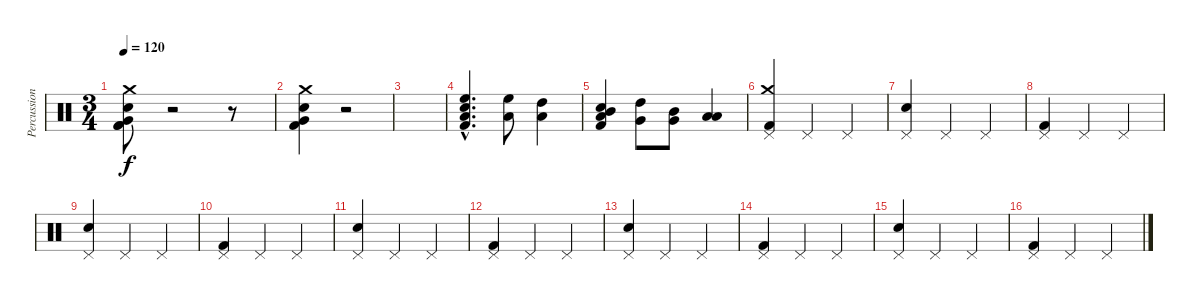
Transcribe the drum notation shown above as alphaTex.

\track ("Percussion" "Percussion") {instrument percussion}
\staff {score}
\articulation defaults
\ts (3 4)
\tempo 120
\clef neutral
\ks c
("Kick (hit) 2" "Snare (hit) 2" "Very Low Tom (hit)" "Crash medium (hit)" "Kick (hit) 2").8{dy f} r.2 r.8 |
("Kick (hit) 2" "Snare (hit) 2" "Very Low Tom (hit)" "Crash medium (hit)").4 r.2 |
|
("Low Tom (hit)"{hac} "High Floor Tom (hit)"{hac} "Kick (hit) 2"{hac} "Electric Snare (hit)"{hac}).4{d} ("Low Tom (hit)" "High Floor Tom (hit)").8 ("Low Tom (hit)" "High Tom (hit)").4 |
("Low Tom (hit)" "Mid Tom (hit)" "Kick (hit) 2" "Electric Snare (hit)").4 ("Very Low Tom (hit)" "High Tom (hit)").8 ("Very Low Tom (hit)" "Mid Tom (hit)").8 ("Low Floor Tom (hit)" "Low Tom (hit)").4 |
("Kick (hit) 2" "Pedal Hi-Hat (hit)" "Crash medium (hit)").4 "Pedal Hi-Hat (hit)".4 "Pedal Hi-Hat (hit)".4 |
("Pedal Hi-Hat (hit)" "Snare (hit) 2").4 "Pedal Hi-Hat (hit)".4 "Pedal Hi-Hat (hit)".4 |
("Kick (hit) 2" "Pedal Hi-Hat (hit)").4 "Pedal Hi-Hat (hit)".4 "Pedal Hi-Hat (hit)".4 |
("Pedal Hi-Hat (hit)" "Snare (hit) 2").4 "Pedal Hi-Hat (hit)".4 "Pedal Hi-Hat (hit)".4 |
("Kick (hit) 2" "Pedal Hi-Hat (hit)").4 "Pedal Hi-Hat (hit)".4 "Pedal Hi-Hat (hit)".4 |
("Pedal Hi-Hat (hit)" "Snare (hit) 2").4 "Pedal Hi-Hat (hit)".4 "Pedal Hi-Hat (hit)".4 |
("Kick (hit) 2" "Pedal Hi-Hat (hit)").4 "Pedal Hi-Hat (hit)".4 "Pedal Hi-Hat (hit)".4 |
("Pedal Hi-Hat (hit)" "Snare (hit) 2").4 "Pedal Hi-Hat (hit)".4 "Pedal Hi-Hat (hit)".4 |
("Kick (hit) 2" "Pedal Hi-Hat (hit)").4 "Pedal Hi-Hat (hit)".4 "Pedal Hi-Hat (hit)".4 |
("Pedal Hi-Hat (hit)" "Snare (hit) 2").4 "Pedal Hi-Hat (hit)".4 "Pedal Hi-Hat (hit)".4 |
("Kick (hit) 2" "Pedal Hi-Hat (hit)").4 "Pedal Hi-Hat (hit)".4 "Pedal Hi-Hat (hit)".4
